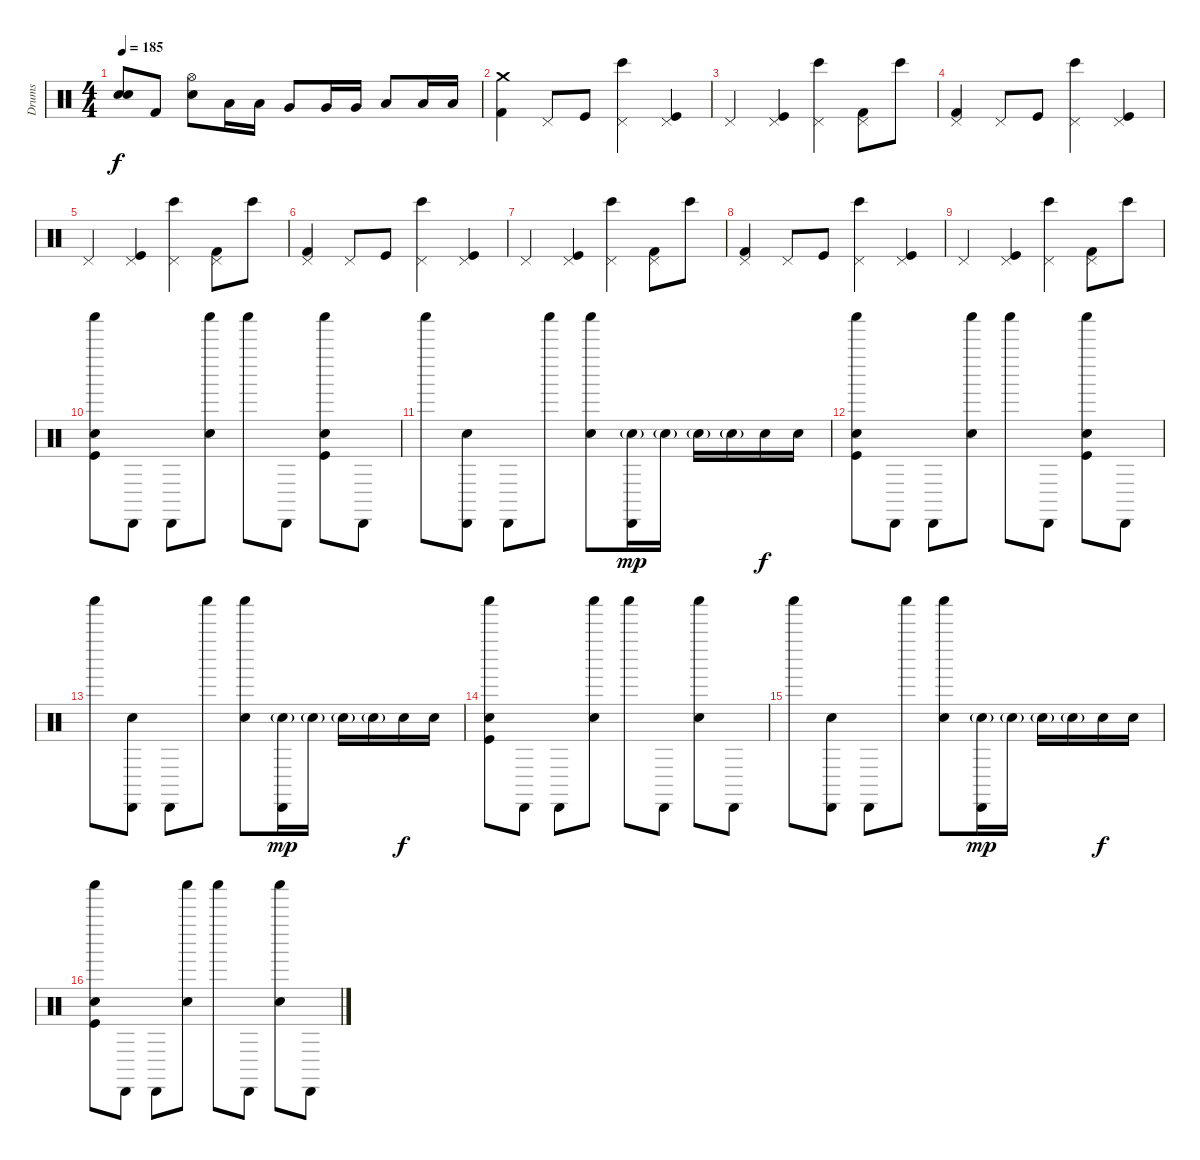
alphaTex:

\track ("Drums" "Drums") {instrument percussion}
\staff {score}
\articulation defaults
\ts (4 4)
\tempo 185
\clef neutral
\ks c
("Snare (hit)"{t} "Snare (hit)"{t}).8{dy f} "Kick (hit) 2".8 ("Hi-Hat (open)" "Electric Snare (hit)").8 "Low Tom (hit)".16 "Low Tom (hit)".16 "Very Low Tom (hit)".8 "Very Low Tom (hit)".16 "Very Low Tom (hit)".16 "Low Floor Tom (hit)".8 "Low Floor Tom (hit)".16 "Low Floor Tom (hit)".16 |
("Crash medium (hit)" "Kick (hit) 2").4{volume 9 balance 5} "Pedal Hi-Hat (hit)".8 "Kick (hit)".8 ("Pedal Hi-Hat (hit)" "Bongo High (hit)").4 ("Pedal Hi-Hat (hit)" "Kick (hit)").4 |
"Pedal Hi-Hat (hit)".4 ("Pedal Hi-Hat (hit)" "Kick (hit)").4 ("Pedal Hi-Hat (hit)" "Bongo High (hit)").4 ("Pedal Hi-Hat (hit)" "Kick (hit) 2").8 "Bongo High (hit)".8 |
("Pedal Hi-Hat (hit)" "Kick (hit) 2").4 "Pedal Hi-Hat (hit)".8 "Kick (hit)".8 ("Pedal Hi-Hat (hit)" "Bongo High (hit)").4 ("Pedal Hi-Hat (hit)" "Kick (hit)").4 |
"Pedal Hi-Hat (hit)".4 ("Pedal Hi-Hat (hit)" "Kick (hit)").4 ("Pedal Hi-Hat (hit)" "Bongo High (hit)").4 ("Pedal Hi-Hat (hit)" "Kick (hit) 2").8 "Bongo High (hit)".8 |
("Pedal Hi-Hat (hit)" "Kick (hit) 2").4 "Pedal Hi-Hat (hit)".8 "Kick (hit)".8 ("Pedal Hi-Hat (hit)" "Bongo High (hit)").4 ("Pedal Hi-Hat (hit)" "Kick (hit)").4 |
"Pedal Hi-Hat (hit)".4 ("Pedal Hi-Hat (hit)" "Kick (hit)").4 ("Pedal Hi-Hat (hit)" "Bongo High (hit)").4 ("Pedal Hi-Hat (hit)" "Kick (hit) 2").8 "Bongo High (hit)".8 |
("Pedal Hi-Hat (hit)" "Kick (hit) 2").4 "Pedal Hi-Hat (hit)".8 "Kick (hit)".8 ("Pedal Hi-Hat (hit)" "Bongo High (hit)").4 ("Pedal Hi-Hat (hit)" "Kick (hit)").4 |
"Pedal Hi-Hat (hit)".4 ("Pedal Hi-Hat (hit)" "Kick (hit)").4 ("Pedal Hi-Hat (hit)" "Bongo High (hit)").4 ("Pedal Hi-Hat (hit)" "Kick (hit) 2").8 "Bongo High (hit)".8 |
("Shaker (hit)" "Electric Snare (hit)" "Kick (hit)").8 "Cabasa (hit)".8 "Cabasa (hit)".8 ("Shaker (hit)" "Electric Snare (hit)").8 "Shaker (hit)".8 "Cabasa (hit)".8 ("Shaker (hit)" "Electric Snare (hit)" "Kick (hit)").8 "Cabasa (hit)".8 |
"Shaker (hit)".8 ("Cabasa (hit)" "Electric Snare (hit)").8 "Cabasa (hit)".8 "Shaker (hit)".8 ("Shaker (hit)" "Electric Snare (hit)").8 ("Cabasa (hit)" "Electric Snare (hit)"{g}).16{dy mp} "Electric Snare (hit)"{g}.16 "Electric Snare (hit)"{g}.16 "Electric Snare (hit)"{g}.16 "Electric Snare (hit)".16{dy f} "Electric Snare (hit)".16 |
("Shaker (hit)" "Electric Snare (hit)" "Kick (hit)").8 "Cabasa (hit)".8 "Cabasa (hit)".8 ("Shaker (hit)" "Electric Snare (hit)").8 "Shaker (hit)".8 "Cabasa (hit)".8 ("Shaker (hit)" "Electric Snare (hit)" "Kick (hit)").8 "Cabasa (hit)".8 |
"Shaker (hit)".8 ("Cabasa (hit)" "Electric Snare (hit)").8 "Cabasa (hit)".8 "Shaker (hit)".8 ("Shaker (hit)" "Electric Snare (hit)").8 ("Cabasa (hit)" "Electric Snare (hit)"{g}).16{dy mp} "Electric Snare (hit)"{g}.16 "Electric Snare (hit)"{g}.16 "Electric Snare (hit)"{g}.16 "Electric Snare (hit)".16{dy f} "Electric Snare (hit)".16 |
("Shaker (hit)" "Electric Snare (hit)" "Kick (hit)").8 "Cabasa (hit)".8 "Cabasa (hit)".8 ("Shaker (hit)" "Electric Snare (hit)").8 "Shaker (hit)".8 "Cabasa (hit)".8 ("Shaker (hit)" "Electric Snare (hit)").8 "Cabasa (hit)".8 |
"Shaker (hit)".8 ("Cabasa (hit)" "Electric Snare (hit)").8 "Cabasa (hit)".8 "Shaker (hit)".8 ("Shaker (hit)" "Electric Snare (hit)").8 ("Cabasa (hit)" "Electric Snare (hit)"{g}).16{dy mp} "Electric Snare (hit)"{g}.16 "Electric Snare (hit)"{g}.16 "Electric Snare (hit)"{g}.16 "Electric Snare (hit)".16{dy f} "Electric Snare (hit)".16 |
("Shaker (hit)" "Electric Snare (hit)" "Kick (hit)").8 "Cabasa (hit)".8 "Cabasa (hit)".8 ("Shaker (hit)" "Electric Snare (hit)").8 "Shaker (hit)".8 "Cabasa (hit)".8 ("Shaker (hit)" "Electric Snare (hit)").8 "Cabasa (hit)".8
